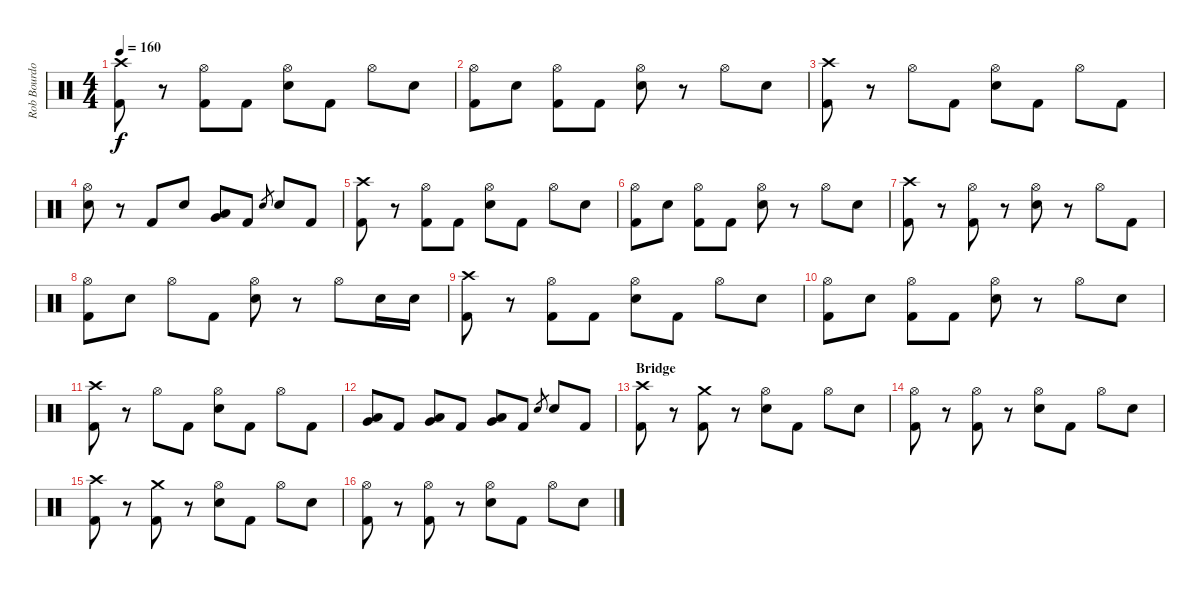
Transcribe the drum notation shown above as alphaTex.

\track ("Rob Bourdon (Drums)" "Rob Bourdo") {instrument percussion}
\staff {score}
\articulation defaults
\ts (4 4)
\tempo 160
\clef neutral
\ks c
("Crash high (hit)" "Kick (hit) 2").8{dy f} r.8 ("Hi-Hat (open)" "Kick (hit) 2").8 "Kick (hit) 2".8 ("Hi-Hat (open)" "Electric Snare (hit)").8 "Kick (hit) 2".8 "Hi-Hat (open)".8 "Electric Snare (hit)".8 |
("Hi-Hat (open)" "Kick (hit) 2").8 "Electric Snare (hit)".8 ("Hi-Hat (open)" "Kick (hit) 2").8 "Kick (hit) 2".8 ("Hi-Hat (open)" "Electric Snare (hit)").8 r.8 "Hi-Hat (open)".8 "Electric Snare (hit)".8 |
("Crash high (hit)" "Kick (hit) 2").8 r.8 "Hi-Hat (open)".8 "Kick (hit) 2".8 ("Hi-Hat (open)" "Electric Snare (hit)").8 "Kick (hit) 2".8 "Hi-Hat (open)".8 "Kick (hit) 2".8 |
("Hi-Hat (open)" "Electric Snare (hit)").8 r.8 "Kick (hit) 2".8 "Electric Snare (hit)".8 ("Low Tom (hit)" "Very Low Tom (hit)").8 "Kick (hit) 2".8 "Electric Snare (hit)".8{gr} "Electric Snare (hit)".8 "Kick (hit) 2".8 |
("Crash high (hit)" "Kick (hit) 2").8 r.8 ("Hi-Hat (open)" "Kick (hit) 2").8 "Kick (hit) 2".8 ("Hi-Hat (open)" "Electric Snare (hit)").8 "Kick (hit) 2".8 "Hi-Hat (open)".8 "Electric Snare (hit)".8 |
("Hi-Hat (open)" "Kick (hit) 2").8 "Electric Snare (hit)".8 ("Hi-Hat (open)" "Kick (hit) 2").8 "Kick (hit) 2".8 ("Hi-Hat (open)" "Electric Snare (hit)").8 r.8 "Hi-Hat (open)".8 "Electric Snare (hit)".8 |
("Crash high (hit)" "Kick (hit) 2").8 r.8 ("Hi-Hat (open)" "Kick (hit) 2").8 r.8 ("Hi-Hat (open)" "Electric Snare (hit)").8 r.8 "Hi-Hat (open)".8 "Kick (hit) 2".8 |
("Hi-Hat (open)" "Kick (hit) 2").8 "Electric Snare (hit)".8 "Hi-Hat (open)".8 "Kick (hit) 2".8 ("Hi-Hat (open)" "Electric Snare (hit)").8 r.8 "Hi-Hat (open)".8 "Electric Snare (hit)".16 "Electric Snare (hit)".16 |
("Crash high (hit)" "Kick (hit) 2").8 r.8 ("Hi-Hat (open)" "Kick (hit) 2").8 "Kick (hit) 2".8 ("Hi-Hat (open)" "Electric Snare (hit)").8 "Kick (hit) 2".8 "Hi-Hat (open)".8 "Electric Snare (hit)".8 |
("Hi-Hat (open)" "Kick (hit) 2").8 "Electric Snare (hit)".8 ("Hi-Hat (open)" "Kick (hit) 2").8 "Kick (hit) 2".8 ("Hi-Hat (open)" "Electric Snare (hit)").8 r.8 "Hi-Hat (open)".8 "Electric Snare (hit)".8 |
("Crash high (hit)" "Kick (hit) 2").8 r.8 "Hi-Hat (open)".8 "Kick (hit) 2".8 ("Hi-Hat (open)" "Electric Snare (hit)").8 "Kick (hit) 2".8 "Hi-Hat (open)".8 "Kick (hit) 2".8 |
("Low Tom (hit)" "Very Low Tom (hit)").8 "Kick (hit) 2".8 ("Low Tom (hit)" "Very Low Tom (hit)").8 "Kick (hit) 2".8 ("Very Low Tom (hit)" "Low Floor Tom (hit)").8 "Kick (hit) 2".8 "Electric Snare (hit)".8{gr} "Electric Snare (hit)".8 "Kick (hit) 2".8 |
\section ("" "Bridge")
("Crash high (hit)" "Kick (hit) 2").8 r.8 ("Crash medium (hit)" "Kick (hit) 2").8 r.8 ("Hi-Hat (open)" "Electric Snare (hit)").8 "Kick (hit) 2".8 "Hi-Hat (open)".8 "Electric Snare (hit)".8 |
("Hi-Hat (open)" "Kick (hit) 2").8 r.8 ("Hi-Hat (open)" "Kick (hit) 2").8 r.8 ("Hi-Hat (open)" "Electric Snare (hit)").8 "Kick (hit) 2".8 "Hi-Hat (open)".8 "Electric Snare (hit)".8 |
("Crash high (hit)" "Kick (hit) 2").8 r.8 ("Crash medium (hit)" "Kick (hit) 2").8 r.8 ("Hi-Hat (open)" "Electric Snare (hit)").8 "Kick (hit) 2".8 "Hi-Hat (open)".8 "Electric Snare (hit)".8 |
("Hi-Hat (open)" "Kick (hit) 2").8 r.8 ("Hi-Hat (open)" "Kick (hit) 2").8 r.8 ("Hi-Hat (open)" "Electric Snare (hit)").8 "Kick (hit) 2".8 "Hi-Hat (open)".8 "Electric Snare (hit)".8
